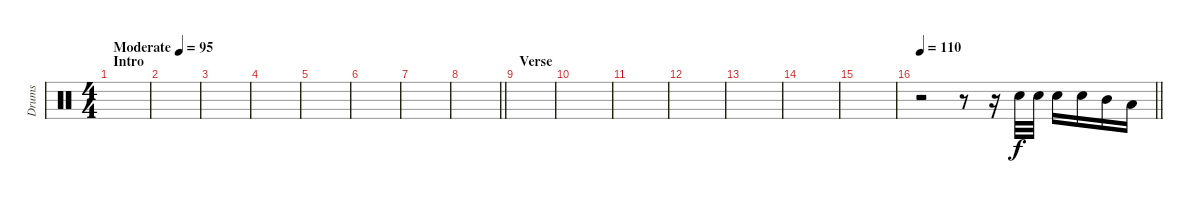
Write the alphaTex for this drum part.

\track ("Drums" "Drums") {instrument percussion}
\staff {score}
\articulation defaults
\ts (4 4)
\section ("" "Intro")
\tempo (95 "Moderate")
\clef neutral
\ks c
|
|
|
|
|
|
|
\barLineRight lightlight
|
\section ("" "Verse")
|
|
|
|
|
|
|
\tempo 110
\barLineRight lightlight
r.2 r.8 r.16 "Electric Snare (hit)".32 "Electric Snare (hit)".32 "Electric Snare (hit)".16 "Electric Snare (hit)".16 "Mid Tom (hit)".16 "Low Tom (hit)".16
